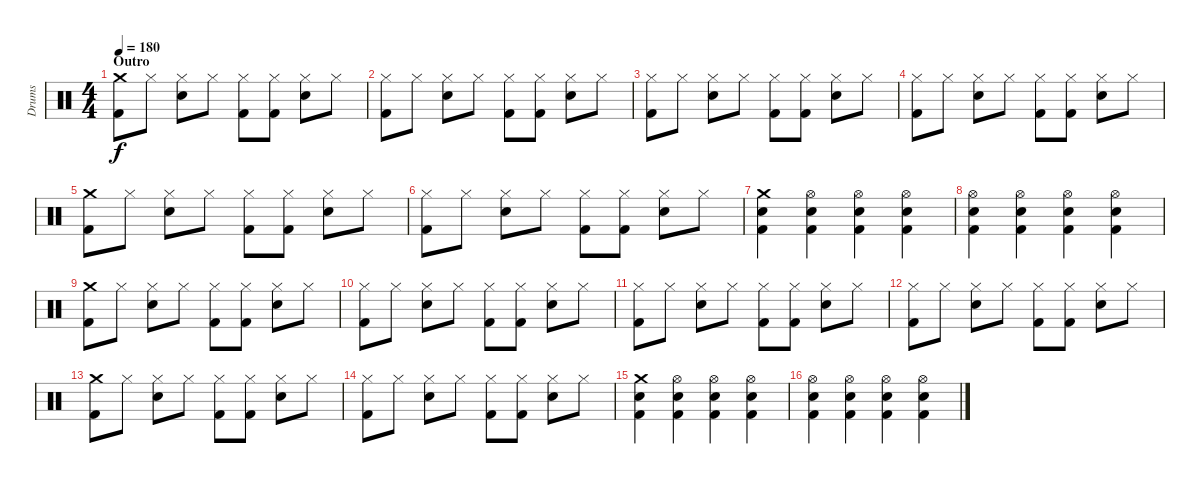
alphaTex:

\track ("Drums" "Drums") {instrument percussion}
\staff {score}
\articulation defaults
\ts (4 4)
\section ("" "Outro")
\tempo 180
\clef neutral
\ks c
("Crash medium (hit)" "Kick (hit) 2").8{dy f} "Hi-Hat (closed)".8 ("Hi-Hat (closed)" "Electric Snare (hit)").8 "Hi-Hat (closed)".8 ("Hi-Hat (closed)" "Kick (hit) 2").8 ("Hi-Hat (closed)" "Kick (hit) 2").8 ("Hi-Hat (closed)" "Electric Snare (hit)").8 "Hi-Hat (closed)".8 |
("Hi-Hat (closed)" "Kick (hit) 2").8 "Hi-Hat (closed)".8 ("Hi-Hat (closed)" "Electric Snare (hit)").8 "Hi-Hat (closed)".8 ("Hi-Hat (closed)" "Kick (hit) 2").8 ("Hi-Hat (closed)" "Kick (hit) 2").8 ("Hi-Hat (closed)" "Electric Snare (hit)").8 "Hi-Hat (closed)".8 |
("Hi-Hat (closed)" "Kick (hit) 2").8 "Hi-Hat (closed)".8 ("Hi-Hat (closed)" "Electric Snare (hit)").8 "Hi-Hat (closed)".8 ("Hi-Hat (closed)" "Kick (hit) 2").8 ("Hi-Hat (closed)" "Kick (hit) 2").8 ("Hi-Hat (closed)" "Electric Snare (hit)").8 "Hi-Hat (closed)".8 |
("Hi-Hat (closed)" "Kick (hit) 2").8 "Hi-Hat (closed)".8 ("Hi-Hat (closed)" "Electric Snare (hit)").8 "Hi-Hat (closed)".8 ("Hi-Hat (closed)" "Kick (hit) 2").8 ("Hi-Hat (closed)" "Kick (hit) 2").8 ("Hi-Hat (closed)" "Electric Snare (hit)").8 "Hi-Hat (closed)".8 |
("Crash medium (hit)" "Kick (hit) 2").8 "Hi-Hat (closed)".8 ("Hi-Hat (closed)" "Electric Snare (hit)").8 "Hi-Hat (closed)".8 ("Hi-Hat (closed)" "Kick (hit) 2").8 ("Hi-Hat (closed)" "Kick (hit) 2").8 ("Hi-Hat (closed)" "Electric Snare (hit)").8 "Hi-Hat (closed)".8 |
("Hi-Hat (closed)" "Kick (hit) 2").8 "Hi-Hat (closed)".8 ("Hi-Hat (closed)" "Electric Snare (hit)").8 "Hi-Hat (closed)".8 ("Hi-Hat (closed)" "Kick (hit) 2").8 ("Hi-Hat (closed)" "Kick (hit) 2").8 ("Hi-Hat (closed)" "Electric Snare (hit)").8 "Hi-Hat (closed)".8 |
("Crash medium (hit)" "Electric Snare (hit)" "Kick (hit) 2").4 ("Hi-Hat (open)" "Electric Snare (hit)" "Kick (hit) 2").4 ("Hi-Hat (open)" "Electric Snare (hit)" "Kick (hit) 2").4 ("Hi-Hat (open)" "Electric Snare (hit)" "Kick (hit) 2").4 |
("Hi-Hat (open)" "Electric Snare (hit)" "Kick (hit) 2").4 ("Hi-Hat (open)" "Electric Snare (hit)" "Kick (hit) 2").4 ("Hi-Hat (open)" "Electric Snare (hit)" "Kick (hit) 2").4 ("Hi-Hat (open)" "Electric Snare (hit)" "Kick (hit) 2").4 |
("Crash medium (hit)" "Kick (hit) 2").8 "Hi-Hat (closed)".8 ("Hi-Hat (closed)" "Electric Snare (hit)").8 "Hi-Hat (closed)".8 ("Hi-Hat (closed)" "Kick (hit) 2").8 ("Hi-Hat (closed)" "Kick (hit) 2").8 ("Hi-Hat (closed)" "Electric Snare (hit)").8 "Hi-Hat (closed)".8 |
("Hi-Hat (closed)" "Kick (hit) 2").8 "Hi-Hat (closed)".8 ("Hi-Hat (closed)" "Electric Snare (hit)").8 "Hi-Hat (closed)".8 ("Hi-Hat (closed)" "Kick (hit) 2").8 ("Hi-Hat (closed)" "Kick (hit) 2").8 ("Hi-Hat (closed)" "Electric Snare (hit)").8 "Hi-Hat (closed)".8 |
("Hi-Hat (closed)" "Kick (hit) 2").8 "Hi-Hat (closed)".8 ("Hi-Hat (closed)" "Electric Snare (hit)").8 "Hi-Hat (closed)".8 ("Hi-Hat (closed)" "Kick (hit) 2").8 ("Hi-Hat (closed)" "Kick (hit) 2").8 ("Hi-Hat (closed)" "Electric Snare (hit)").8 "Hi-Hat (closed)".8 |
("Hi-Hat (closed)" "Kick (hit) 2").8 "Hi-Hat (closed)".8 ("Hi-Hat (closed)" "Electric Snare (hit)").8 "Hi-Hat (closed)".8 ("Hi-Hat (closed)" "Kick (hit) 2").8 ("Hi-Hat (closed)" "Kick (hit) 2").8 ("Hi-Hat (closed)" "Electric Snare (hit)").8 "Hi-Hat (closed)".8 |
("Crash medium (hit)" "Kick (hit) 2").8 "Hi-Hat (closed)".8 ("Hi-Hat (closed)" "Electric Snare (hit)").8 "Hi-Hat (closed)".8 ("Hi-Hat (closed)" "Kick (hit) 2").8 ("Hi-Hat (closed)" "Kick (hit) 2").8 ("Hi-Hat (closed)" "Electric Snare (hit)").8 "Hi-Hat (closed)".8 |
("Hi-Hat (closed)" "Kick (hit) 2").8 "Hi-Hat (closed)".8 ("Hi-Hat (closed)" "Electric Snare (hit)").8 "Hi-Hat (closed)".8 ("Hi-Hat (closed)" "Kick (hit) 2").8 ("Hi-Hat (closed)" "Kick (hit) 2").8 ("Hi-Hat (closed)" "Electric Snare (hit)").8 "Hi-Hat (closed)".8 |
("Crash medium (hit)" "Electric Snare (hit)" "Kick (hit) 2").4 ("Hi-Hat (open)" "Electric Snare (hit)" "Kick (hit) 2").4 ("Hi-Hat (open)" "Electric Snare (hit)" "Kick (hit) 2").4 ("Hi-Hat (open)" "Electric Snare (hit)" "Kick (hit) 2").4 |
("Hi-Hat (open)" "Electric Snare (hit)" "Kick (hit) 2").4 ("Hi-Hat (open)" "Electric Snare (hit)" "Kick (hit) 2").4 ("Hi-Hat (open)" "Electric Snare (hit)" "Kick (hit) 2").4 ("Hi-Hat (open)" "Electric Snare (hit)" "Kick (hit) 2").4
